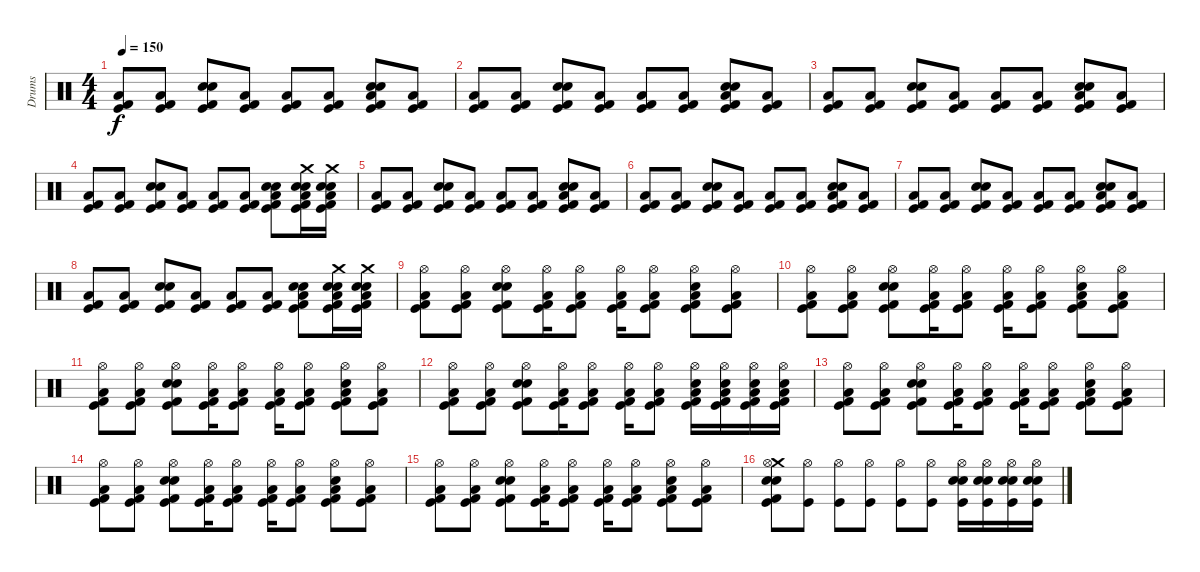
\track ("Drums" "Drums") {instrument percussion}
\staff {score}
\articulation defaults
\ts (4 4)
\tempo 150
\clef neutral
\ks c
("Kick (hit) 2" "Low Floor Tom (hit)" "Kick (hit)").8{dy f} ("Kick (hit) 2" "Low Floor Tom (hit)" "Kick (hit)").8 ("Snare (hit) 2" "Kick (hit) 2" "Electric Snare (hit)" "Kick (hit)").8 ("Low Floor Tom (hit)" "Kick (hit) 2" "Kick (hit)").8 ("Low Floor Tom (hit)" "Kick (hit) 2" "Kick (hit)").8 ("Low Floor Tom (hit)" "Kick (hit) 2" "Kick (hit)").8 ("Snare (hit) 2" "Low Floor Tom (hit)" "Kick (hit) 2" "Electric Snare (hit)" "Kick (hit)").8 ("Low Floor Tom (hit)" "Kick (hit) 2" "Kick (hit)").8 |
("Kick (hit) 2" "Low Floor Tom (hit)" "Kick (hit)").8 ("Kick (hit) 2" "Low Floor Tom (hit)" "Kick (hit)").8 ("Snare (hit) 2" "Kick (hit) 2" "Electric Snare (hit)" "Kick (hit)").8 ("Low Floor Tom (hit)" "Kick (hit) 2" "Kick (hit)").8 ("Low Floor Tom (hit)" "Kick (hit) 2" "Kick (hit)").8 ("Low Floor Tom (hit)" "Kick (hit) 2" "Kick (hit)").8 ("Snare (hit) 2" "Low Floor Tom (hit)" "Kick (hit) 2" "Electric Snare (hit)" "Kick (hit)").8 ("Low Floor Tom (hit)" "Kick (hit) 2" "Kick (hit)").8 |
("Kick (hit) 2" "Low Floor Tom (hit)" "Kick (hit)").8 ("Kick (hit) 2" "Low Floor Tom (hit)" "Kick (hit)").8 ("Snare (hit) 2" "Kick (hit) 2" "Electric Snare (hit)" "Kick (hit)").8 ("Low Floor Tom (hit)" "Kick (hit) 2" "Kick (hit)").8 ("Low Floor Tom (hit)" "Kick (hit) 2" "Kick (hit)").8 ("Low Floor Tom (hit)" "Kick (hit) 2" "Kick (hit)").8 ("Snare (hit) 2" "Low Floor Tom (hit)" "Kick (hit) 2" "Electric Snare (hit)" "Kick (hit)").8 ("Low Floor Tom (hit)" "Kick (hit) 2" "Kick (hit)").8 |
("Kick (hit) 2" "Low Floor Tom (hit)" "Kick (hit)").8 ("Kick (hit) 2" "Low Floor Tom (hit)" "Kick (hit)").8 ("Snare (hit) 2" "Kick (hit) 2" "Electric Snare (hit)" "Kick (hit)").8 ("Low Floor Tom (hit)" "Kick (hit) 2" "Kick (hit)").8 ("Low Floor Tom (hit)" "Kick (hit) 2" "Kick (hit)").8 ("Low Floor Tom (hit)" "Kick (hit) 2" "Kick (hit)").8 ("Snare (hit) 2" "Low Floor Tom (hit)" "Kick (hit) 2" "Electric Snare (hit)" "Kick (hit)").8 ("Crash medium (hit)" "Electric Snare (hit)" "Snare (hit) 2" "Low Floor Tom (hit)" "Kick (hit) 2" "Kick (hit)").16 ("Crash medium (hit)" "Electric Snare (hit)" "Snare (hit) 2" "Low Floor Tom (hit)" "Kick (hit) 2" "Kick (hit)").16 |
("Kick (hit) 2" "Low Floor Tom (hit)" "Kick (hit)").8 ("Kick (hit) 2" "Low Floor Tom (hit)" "Kick (hit)").8 ("Snare (hit) 2" "Kick (hit) 2" "Electric Snare (hit)" "Kick (hit)").8 ("Low Floor Tom (hit)" "Kick (hit) 2" "Kick (hit)").8 ("Low Floor Tom (hit)" "Kick (hit) 2" "Kick (hit)").8 ("Low Floor Tom (hit)" "Kick (hit) 2" "Kick (hit)").8 ("Snare (hit) 2" "Low Floor Tom (hit)" "Kick (hit) 2" "Electric Snare (hit)" "Kick (hit)").8 ("Low Floor Tom (hit)" "Kick (hit) 2" "Kick (hit)").8 |
("Kick (hit) 2" "Low Floor Tom (hit)" "Kick (hit)").8 ("Kick (hit) 2" "Low Floor Tom (hit)" "Kick (hit)").8 ("Snare (hit) 2" "Kick (hit) 2" "Electric Snare (hit)" "Kick (hit)").8 ("Low Floor Tom (hit)" "Kick (hit) 2" "Kick (hit)").8 ("Low Floor Tom (hit)" "Kick (hit) 2" "Kick (hit)").8 ("Low Floor Tom (hit)" "Kick (hit) 2" "Kick (hit)").8 ("Snare (hit) 2" "Low Floor Tom (hit)" "Kick (hit) 2" "Electric Snare (hit)" "Kick (hit)").8 ("Low Floor Tom (hit)" "Kick (hit) 2" "Kick (hit)").8 |
("Kick (hit) 2" "Low Floor Tom (hit)" "Kick (hit)").8 ("Kick (hit) 2" "Low Floor Tom (hit)" "Kick (hit)").8 ("Snare (hit) 2" "Kick (hit) 2" "Electric Snare (hit)" "Kick (hit)").8 ("Low Floor Tom (hit)" "Kick (hit) 2" "Kick (hit)").8 ("Low Floor Tom (hit)" "Kick (hit) 2" "Kick (hit)").8 ("Low Floor Tom (hit)" "Kick (hit) 2" "Kick (hit)").8 ("Snare (hit) 2" "Low Floor Tom (hit)" "Kick (hit) 2" "Electric Snare (hit)" "Kick (hit)").8 ("Low Floor Tom (hit)" "Kick (hit) 2" "Kick (hit)").8 |
("Kick (hit) 2" "Low Floor Tom (hit)" "Kick (hit)").8 ("Kick (hit) 2" "Low Floor Tom (hit)" "Kick (hit)").8 ("Snare (hit) 2" "Kick (hit) 2" "Electric Snare (hit)" "Kick (hit)").8 ("Low Floor Tom (hit)" "Kick (hit) 2" "Kick (hit)").8 ("Low Floor Tom (hit)" "Kick (hit) 2" "Kick (hit)").8 ("Low Floor Tom (hit)" "Kick (hit) 2" "Kick (hit)").8 ("Snare (hit) 2" "Low Floor Tom (hit)" "Kick (hit) 2" "Electric Snare (hit)" "Kick (hit)").8 ("Crash medium (hit)" "Electric Snare (hit)" "Snare (hit) 2" "Low Floor Tom (hit)" "Kick (hit) 2" "Kick (hit)").16 ("Crash medium (hit)" "Electric Snare (hit)" "Snare (hit) 2" "Low Floor Tom (hit)" "Kick (hit) 2" "Kick (hit)").16 |
("Hi-Hat (open)" "Kick (hit) 2" "Low Floor Tom (hit)" "Kick (hit)").8 ("Hi-Hat (open)" "Kick (hit) 2" "Low Floor Tom (hit)" "Kick (hit)").8 ("Hi-Hat (open)" "Snare (hit) 2" "Kick (hit) 2" "Electric Snare (hit)" "Kick (hit)").8 ("Hi-Hat (open)" "Low Floor Tom (hit)" "Kick (hit) 2" "Kick (hit)").16 ("Hi-Hat (open)" "Low Floor Tom (hit)" "Kick (hit) 2" "Kick (hit)").8 ("Hi-Hat (open)" "Low Floor Tom (hit)" "Kick (hit) 2" "Kick (hit)").16 ("Hi-Hat (open)" "Low Floor Tom (hit)" "Kick (hit) 2" "Kick (hit)").8 ("Hi-Hat (open)" "Snare (hit) 2" "Low Floor Tom (hit)" "Kick (hit) 2" "Kick (hit)").8 ("Hi-Hat (open)" "Low Floor Tom (hit)" "Kick (hit) 2" "Kick (hit)").8 |
("Hi-Hat (open)" "Kick (hit) 2" "Low Floor Tom (hit)" "Kick (hit)").8 ("Hi-Hat (open)" "Kick (hit) 2" "Low Floor Tom (hit)" "Kick (hit)").8 ("Hi-Hat (open)" "Snare (hit) 2" "Kick (hit) 2" "Electric Snare (hit)" "Kick (hit)").8 ("Hi-Hat (open)" "Low Floor Tom (hit)" "Kick (hit) 2" "Kick (hit)").16 ("Hi-Hat (open)" "Low Floor Tom (hit)" "Kick (hit) 2" "Kick (hit)").8 ("Hi-Hat (open)" "Low Floor Tom (hit)" "Kick (hit) 2" "Kick (hit)").16 ("Hi-Hat (open)" "Low Floor Tom (hit)" "Kick (hit) 2" "Kick (hit)").8 ("Hi-Hat (open)" "Snare (hit) 2" "Low Floor Tom (hit)" "Kick (hit) 2" "Kick (hit)").8 ("Hi-Hat (open)" "Low Floor Tom (hit)" "Kick (hit) 2" "Kick (hit)").8 |
("Hi-Hat (open)" "Kick (hit) 2" "Low Floor Tom (hit)" "Kick (hit)").8 ("Hi-Hat (open)" "Kick (hit) 2" "Low Floor Tom (hit)" "Kick (hit)").8 ("Hi-Hat (open)" "Snare (hit) 2" "Kick (hit) 2" "Electric Snare (hit)" "Kick (hit)").8 ("Hi-Hat (open)" "Low Floor Tom (hit)" "Kick (hit) 2" "Kick (hit)").16 ("Hi-Hat (open)" "Low Floor Tom (hit)" "Kick (hit) 2" "Kick (hit)").8 ("Hi-Hat (open)" "Low Floor Tom (hit)" "Kick (hit) 2" "Kick (hit)").16 ("Hi-Hat (open)" "Low Floor Tom (hit)" "Kick (hit) 2" "Kick (hit)").8 ("Hi-Hat (open)" "Snare (hit) 2" "Low Floor Tom (hit)" "Kick (hit) 2" "Kick (hit)").8 ("Hi-Hat (open)" "Low Floor Tom (hit)" "Kick (hit) 2" "Kick (hit)").8 |
("Hi-Hat (open)" "Kick (hit) 2" "Low Floor Tom (hit)" "Kick (hit)").8 ("Hi-Hat (open)" "Kick (hit) 2" "Low Floor Tom (hit)" "Kick (hit)").8 ("Hi-Hat (open)" "Snare (hit) 2" "Kick (hit) 2" "Electric Snare (hit)" "Kick (hit)").8 ("Hi-Hat (open)" "Low Floor Tom (hit)" "Kick (hit) 2" "Kick (hit)").16 ("Hi-Hat (open)" "Low Floor Tom (hit)" "Kick (hit) 2" "Kick (hit)").8 ("Hi-Hat (open)" "Low Floor Tom (hit)" "Kick (hit) 2" "Kick (hit)").16 ("Hi-Hat (open)" "Low Floor Tom (hit)" "Kick (hit) 2" "Kick (hit)").8 ("Hi-Hat (open)" "Snare (hit) 2" "Low Floor Tom (hit)" "Kick (hit) 2" "Kick (hit)").16 ("Hi-Hat (open)" "Snare (hit) 2" "Low Floor Tom (hit)" "Kick (hit) 2" "Kick (hit)").16 ("Hi-Hat (open)" "Snare (hit) 2" "Low Floor Tom (hit)" "Kick (hit) 2" "Kick (hit)").16 ("Hi-Hat (open)" "Snare (hit) 2" "Low Floor Tom (hit)" "Kick (hit) 2" "Kick (hit)").16 |
("Hi-Hat (open)" "Kick (hit) 2" "Low Floor Tom (hit)" "Kick (hit)").8 ("Hi-Hat (open)" "Kick (hit) 2" "Low Floor Tom (hit)" "Kick (hit)").8 ("Hi-Hat (open)" "Snare (hit) 2" "Kick (hit) 2" "Electric Snare (hit)" "Kick (hit)").8 ("Hi-Hat (open)" "Low Floor Tom (hit)" "Kick (hit) 2" "Kick (hit)").16 ("Hi-Hat (open)" "Low Floor Tom (hit)" "Kick (hit) 2" "Kick (hit)").8 ("Hi-Hat (open)" "Low Floor Tom (hit)" "Kick (hit) 2" "Kick (hit)").16 ("Hi-Hat (open)" "Low Floor Tom (hit)" "Kick (hit) 2" "Kick (hit)").8 ("Hi-Hat (open)" "Snare (hit) 2" "Low Floor Tom (hit)" "Kick (hit) 2" "Kick (hit)").8 ("Hi-Hat (open)" "Low Floor Tom (hit)" "Kick (hit) 2" "Kick (hit)").8 |
("Hi-Hat (open)" "Kick (hit) 2" "Low Floor Tom (hit)" "Kick (hit)").8 ("Hi-Hat (open)" "Kick (hit) 2" "Low Floor Tom (hit)" "Kick (hit)").8 ("Hi-Hat (open)" "Snare (hit) 2" "Kick (hit) 2" "Electric Snare (hit)" "Kick (hit)").8 ("Hi-Hat (open)" "Low Floor Tom (hit)" "Kick (hit) 2" "Kick (hit)").16 ("Hi-Hat (open)" "Low Floor Tom (hit)" "Kick (hit) 2" "Kick (hit)").8 ("Hi-Hat (open)" "Low Floor Tom (hit)" "Kick (hit) 2" "Kick (hit)").16 ("Hi-Hat (open)" "Low Floor Tom (hit)" "Kick (hit) 2" "Kick (hit)").8 ("Hi-Hat (open)" "Snare (hit) 2" "Low Floor Tom (hit)" "Kick (hit) 2" "Kick (hit)").8 ("Hi-Hat (open)" "Low Floor Tom (hit)" "Kick (hit) 2" "Kick (hit)").8 |
("Hi-Hat (open)" "Kick (hit) 2" "Low Floor Tom (hit)" "Kick (hit)").8 ("Hi-Hat (open)" "Kick (hit) 2" "Low Floor Tom (hit)" "Kick (hit)").8 ("Hi-Hat (open)" "Snare (hit) 2" "Kick (hit) 2" "Electric Snare (hit)" "Kick (hit)").8 ("Hi-Hat (open)" "Low Floor Tom (hit)" "Kick (hit) 2" "Kick (hit)").16 ("Hi-Hat (open)" "Low Floor Tom (hit)" "Kick (hit) 2" "Kick (hit)").8 ("Hi-Hat (open)" "Low Floor Tom (hit)" "Kick (hit) 2" "Kick (hit)").16 ("Hi-Hat (open)" "Low Floor Tom (hit)" "Kick (hit) 2" "Kick (hit)").8 ("Hi-Hat (open)" "Snare (hit) 2" "Low Floor Tom (hit)" "Kick (hit) 2" "Kick (hit)").8 ("Hi-Hat (open)" "Low Floor Tom (hit)" "Kick (hit) 2" "Kick (hit)").8 |
("Crash medium (hit)" "Snare (hit) 2" "Electric Snare (hit)" "Hi-Hat (open)" "Kick (hit) 2" "Kick (hit)").8 ("Hi-Hat (open)" "Kick (hit)").8 ("Hi-Hat (open)" "Kick (hit)").8 ("Hi-Hat (open)" "Kick (hit)").8 ("Hi-Hat (open)" "Kick (hit)").8 ("Hi-Hat (open)" "Kick (hit)").8 ("Electric Snare (hit)" "Snare (hit) 2" "Hi-Hat (open)" "Kick (hit)").16 ("Electric Snare (hit)" "Snare (hit) 2" "Hi-Hat (open)" "Kick (hit)").16 ("Electric Snare (hit)" "Snare (hit) 2" "Hi-Hat (open)" "Kick (hit)").16 ("Electric Snare (hit)" "Snare (hit) 2" "Hi-Hat (open)" "Kick (hit)").16
